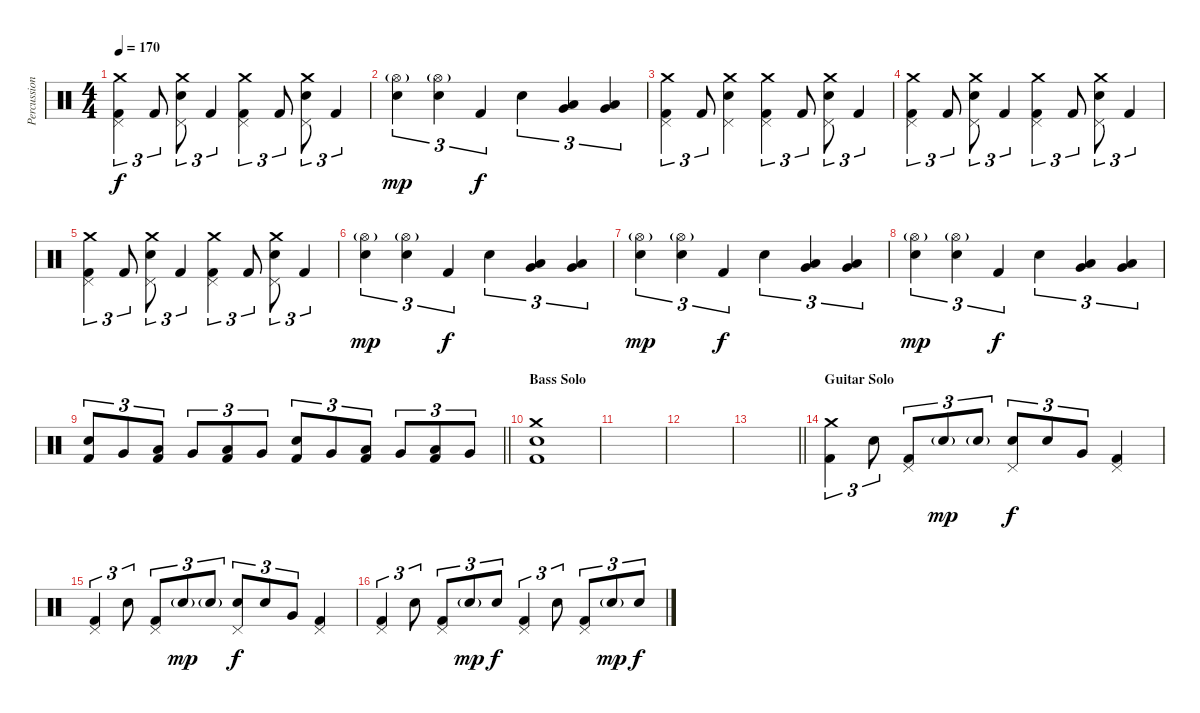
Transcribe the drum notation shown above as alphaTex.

\track ("Percussion" "Percussion") {instrument percussion}
\staff {score}
\articulation defaults
\ts (4 4)
\tempo 170
\clef neutral
\ks c
("Crash medium (hit)" "Pedal Hi-Hat (hit)" "Kick (hit) 2").4{tu (3 2) dy f} "Kick (hit) 2".8{tu (3 2)} ("Crash medium (hit)" "Pedal Hi-Hat (hit)" "Snare (hit) 2").8{tu (3 2)} "Kick (hit) 2".4{tu (3 2)} ("Crash medium (hit)" "Pedal Hi-Hat (hit)" "Kick (hit) 2").4{tu (3 2)} "Kick (hit) 2".8{tu (3 2)} ("Crash medium (hit)" "Pedal Hi-Hat (hit)" "Snare (hit) 2").8{tu (3 2)} "Kick (hit) 2".4{tu (3 2)} |
("Hi-Hat (open)"{g} "Snare (hit) 2").4{tu (3 2) dy mp} ("Hi-Hat (open)"{g} "Snare (hit) 2").4{tu (3 2)} "Kick (hit) 2".4{tu (3 2) dy f} "Snare (hit) 2".4{tu (3 2)} ("Low Tom (hit)" "Very Low Tom (hit)").4{tu (3 2)} ("Low Tom (hit)" "Very Low Tom (hit)").4{tu (3 2)} |
("Crash medium (hit)" "Pedal Hi-Hat (hit)" "Kick (hit) 2").4{tu (3 2)} "Kick (hit) 2".8{tu (3 2)} ("Crash medium (hit)" "Pedal Hi-Hat (hit)" "Snare (hit) 2").4 ("Crash medium (hit)" "Pedal Hi-Hat (hit)" "Kick (hit) 2").4{tu (3 2)} "Kick (hit) 2".8{tu (3 2)} ("Crash medium (hit)" "Pedal Hi-Hat (hit)" "Snare (hit) 2").8{tu (3 2)} "Kick (hit) 2".4{tu (3 2)} |
("Crash medium (hit)" "Pedal Hi-Hat (hit)" "Kick (hit) 2").4{tu (3 2)} "Kick (hit) 2".8{tu (3 2)} ("Crash medium (hit)" "Pedal Hi-Hat (hit)" "Snare (hit) 2").8{tu (3 2)} "Kick (hit) 2".4{tu (3 2)} ("Crash medium (hit)" "Pedal Hi-Hat (hit)" "Kick (hit) 2").4{tu (3 2)} "Kick (hit) 2".8{tu (3 2)} ("Crash medium (hit)" "Pedal Hi-Hat (hit)" "Snare (hit) 2").8{tu (3 2)} "Kick (hit) 2".4{tu (3 2)} |
("Crash medium (hit)" "Pedal Hi-Hat (hit)" "Kick (hit) 2").4{tu (3 2)} "Kick (hit) 2".8{tu (3 2)} ("Crash medium (hit)" "Pedal Hi-Hat (hit)" "Snare (hit) 2").8{tu (3 2)} "Kick (hit) 2".4{tu (3 2)} ("Crash medium (hit)" "Pedal Hi-Hat (hit)" "Kick (hit) 2").4{tu (3 2)} "Kick (hit) 2".8{tu (3 2)} ("Crash medium (hit)" "Pedal Hi-Hat (hit)" "Snare (hit) 2").8{tu (3 2)} "Kick (hit) 2".4{tu (3 2)} |
("Hi-Hat (open)"{g} "Snare (hit) 2").4{tu (3 2) dy mp} ("Hi-Hat (open)"{g} "Snare (hit) 2").4{tu (3 2)} "Kick (hit) 2".4{tu (3 2) dy f} "Snare (hit) 2".4{tu (3 2)} ("Low Tom (hit)" "Very Low Tom (hit)").4{tu (3 2)} ("Low Tom (hit)" "Very Low Tom (hit)").4{tu (3 2)} |
("Hi-Hat (open)"{g} "Snare (hit) 2").4{tu (3 2) dy mp} ("Hi-Hat (open)"{g} "Snare (hit) 2").4{tu (3 2)} "Kick (hit) 2".4{tu (3 2) dy f} "Snare (hit) 2".4{tu (3 2)} ("Low Tom (hit)" "Very Low Tom (hit)").4{tu (3 2)} ("Low Tom (hit)" "Very Low Tom (hit)").4{tu (3 2)} |
("Hi-Hat (open)"{g} "Snare (hit) 2").4{tu (3 2) dy mp} ("Hi-Hat (open)"{g} "Snare (hit) 2").4{tu (3 2)} "Kick (hit) 2".4{tu (3 2) dy f} "Snare (hit) 2".4{tu (3 2)} ("Low Tom (hit)" "Very Low Tom (hit)").4{tu (3 2)} ("Low Tom (hit)" "Very Low Tom (hit)").4{tu (3 2)} |
\barLineRight lightlight
("Snare (hit) 2" "Kick (hit) 2").8{tu (3 2)} "Very Low Tom (hit)".8{tu (3 2)} ("Low Tom (hit)" "Kick (hit) 2").8{tu (3 2)} "Very Low Tom (hit)".8{tu (3 2)} ("Low Tom (hit)" "Kick (hit) 2").8{tu (3 2)} "Very Low Tom (hit)".8{tu (3 2)} ("Snare (hit) 2" "Kick (hit) 2").8{tu (3 2)} "Very Low Tom (hit)".8{tu (3 2)} ("Low Tom (hit)" "Kick (hit) 2").8{tu (3 2)} "Very Low Tom (hit)".8{tu (3 2)} ("Low Tom (hit)" "Kick (hit) 2").8{tu (3 2)} "Very Low Tom (hit)".8{tu (3 2)} |
\section ("" "Bass Solo")
("Crash medium (hit)" "Snare (hit) 2" "Kick (hit) 2").1 |
|
|
\barLineRight lightlight
|
\section ("" "Guitar Solo")
("Crash medium (hit)" "Kick (hit) 2").4{tu (3 2)} "Snare (hit) 2".8{tu (3 2)} ("Pedal Hi-Hat (hit)" "Kick (hit) 2").8{tu (3 2)} "Snare (hit) 2"{g}.8{tu (3 2) dy mp} "Snare (hit) 2"{g}.8{tu (3 2)} ("Pedal Hi-Hat (hit)" "Snare (hit) 2").8{tu (3 2) dy f} "Snare (hit) 2".8{tu (3 2)} "Very Low Tom (hit)".8{tu (3 2)} ("Pedal Hi-Hat (hit)" "Kick (hit) 2").4 |
("Pedal Hi-Hat (hit)" "Kick (hit) 2").4{tu (3 2)} "Snare (hit) 2".8{tu (3 2)} ("Pedal Hi-Hat (hit)" "Kick (hit) 2").8{tu (3 2)} "Snare (hit) 2"{g}.8{tu (3 2) dy mp} "Snare (hit) 2"{g}.8{tu (3 2)} ("Pedal Hi-Hat (hit)" "Snare (hit) 2").8{tu (3 2) dy f} "Snare (hit) 2".8{tu (3 2)} "Very Low Tom (hit)".8{tu (3 2)} ("Pedal Hi-Hat (hit)" "Kick (hit) 2").4 |
("Pedal Hi-Hat (hit)" "Kick (hit) 2").4{tu (3 2)} "Snare (hit) 2".8{tu (3 2)} ("Pedal Hi-Hat (hit)" "Kick (hit) 2").8{tu (3 2)} "Snare (hit) 2"{g}.8{tu (3 2) dy mp} "Snare (hit) 2".8{tu (3 2) dy f} ("Pedal Hi-Hat (hit)" "Kick (hit) 2").4{tu (3 2)} "Snare (hit) 2".8{tu (3 2)} ("Pedal Hi-Hat (hit)" "Kick (hit) 2").8{tu (3 2)} "Snare (hit) 2"{g}.8{tu (3 2) dy mp} "Snare (hit) 2".8{tu (3 2) dy f}
